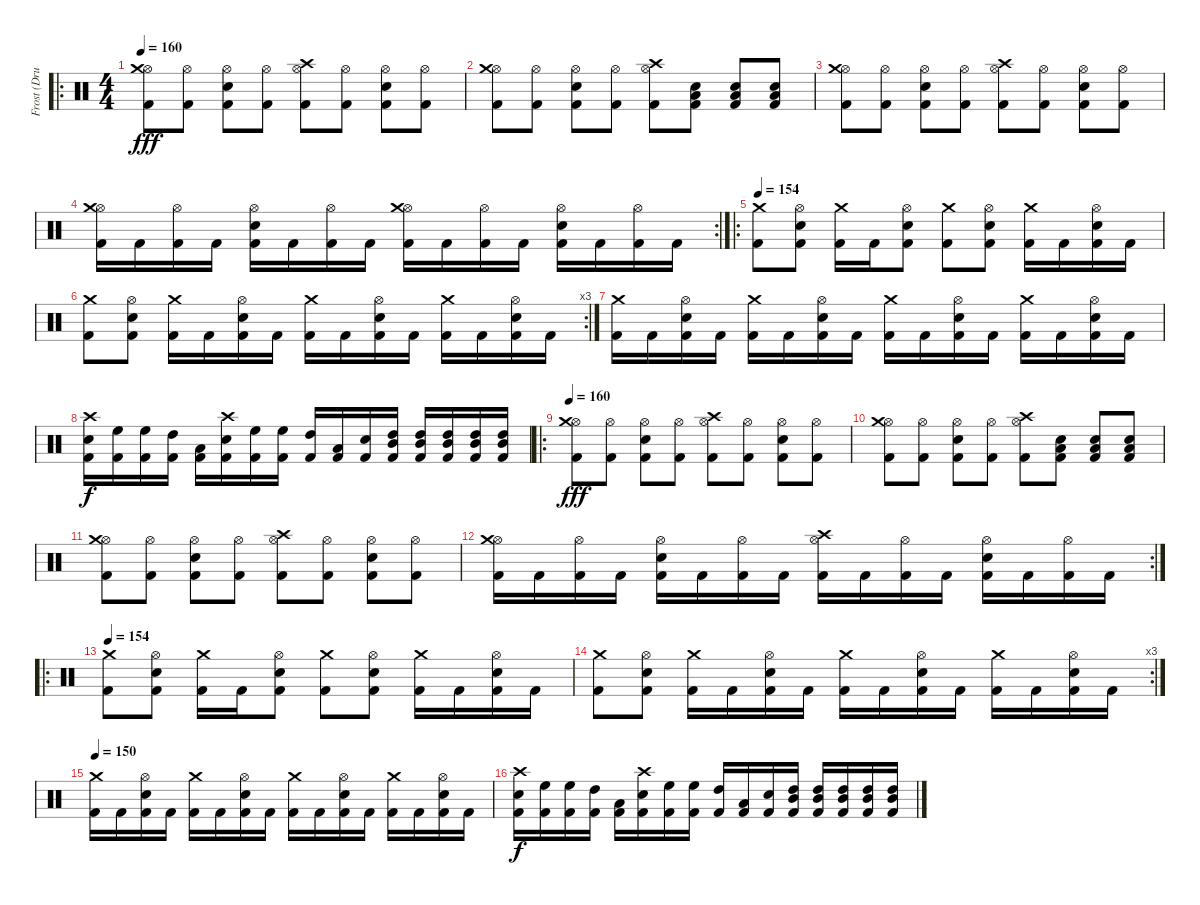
\track ("Frost (Drums)" "Frost (Dru") {instrument percussion}
\staff {score}
\articulation defaults
\ro
\ts (4 4)
\tempo 160
\clef neutral
\ks c
("Hi-Hat (open)" "Crash medium (hit)" "Kick (hit) 2").8{dy fff} ("Hi-Hat (open)" "Kick (hit) 2").8 ("Hi-Hat (open)" "Snare (hit) 2" "Kick (hit) 2").8 ("Hi-Hat (open)" "Kick (hit) 2").8 ("Hi-Hat (open)" "Crash high (hit)" "Kick (hit) 2").8 ("Hi-Hat (open)" "Kick (hit) 2").8 ("Hi-Hat (open)" "Snare (hit) 2" "Kick (hit) 2").8 ("Hi-Hat (open)" "Kick (hit) 2").8 |
("Hi-Hat (open)" "Crash medium (hit)" "Kick (hit) 2").8 ("Hi-Hat (open)" "Kick (hit) 2").8 ("Hi-Hat (open)" "Snare (hit) 2" "Kick (hit) 2").8 ("Hi-Hat (open)" "Kick (hit) 2").8 ("Hi-Hat (open)" "Crash high (hit)" "Kick (hit) 2").8 ("Low Tom (hit)" "Snare (hit) 2" "Kick (hit) 2").8 ("Low Tom (hit)" "Snare (hit) 2" "Kick (hit) 2").8 ("Low Tom (hit)" "Snare (hit) 2" "Kick (hit) 2").8 |
("Hi-Hat (open)" "Crash medium (hit)" "Kick (hit) 2").8 ("Hi-Hat (open)" "Kick (hit) 2").8 ("Hi-Hat (open)" "Snare (hit) 2" "Kick (hit) 2").8 ("Hi-Hat (open)" "Kick (hit) 2").8 ("Hi-Hat (open)" "Crash high (hit)" "Kick (hit) 2").8 ("Hi-Hat (open)" "Kick (hit) 2").8 ("Hi-Hat (open)" "Snare (hit) 2" "Kick (hit) 2").8 ("Hi-Hat (open)" "Kick (hit) 2").8 |
\rc 2
("Hi-Hat (open)" "Crash medium (hit)" "Kick (hit) 2").16 "Kick (hit) 2".16 ("Hi-Hat (open)" "Kick (hit) 2").16 "Kick (hit) 2".16 ("Hi-Hat (open)" "Snare (hit) 2" "Kick (hit) 2").16 "Kick (hit) 2".16 ("Hi-Hat (open)" "Kick (hit) 2").16 "Kick (hit) 2".16 ("Hi-Hat (open)" "Crash medium (hit)" "Kick (hit) 2").16 "Kick (hit) 2".16 ("Hi-Hat (open)" "Kick (hit) 2").16 "Kick (hit) 2".16 ("Hi-Hat (open)" "Snare (hit) 2" "Kick (hit) 2").16 "Kick (hit) 2".16 ("Hi-Hat (open)" "Kick (hit) 2").16 "Kick (hit) 2".16 |
\ro
\tempo 154
("Kick (hit) 2" "Crash medium (hit)").8 ("Kick (hit) 2" "Snare (hit) 2" "Hi-Hat (open)").8 ("Kick (hit) 2" "Crash medium (hit)").16 "Kick (hit) 2".16 ("Kick (hit) 2" "Snare (hit) 2" "Hi-Hat (open)").8 ("Kick (hit) 2" "Crash medium (hit)").8 ("Kick (hit) 2" "Snare (hit) 2" "Hi-Hat (open)").8 ("Kick (hit) 2" "Crash medium (hit)").16 "Kick (hit) 2".16 ("Kick (hit) 2" "Snare (hit) 2" "Hi-Hat (open)").16 "Kick (hit) 2".16 |
\rc 3
("Kick (hit) 2" "Crash medium (hit)").8 ("Kick (hit) 2" "Snare (hit) 2" "Hi-Hat (open)").8 ("Kick (hit) 2" "Crash medium (hit)").16 "Kick (hit) 2".16 ("Kick (hit) 2" "Snare (hit) 2" "Hi-Hat (open)").16 "Kick (hit) 2".16 ("Kick (hit) 2" "Crash medium (hit)").16 "Kick (hit) 2".16 ("Kick (hit) 2" "Snare (hit) 2" "Hi-Hat (open)").16 "Kick (hit) 2".16 ("Kick (hit) 2" "Crash medium (hit)").16 "Kick (hit) 2".16 ("Kick (hit) 2" "Snare (hit) 2" "Hi-Hat (open)").16 "Kick (hit) 2".16 |
("Kick (hit) 2" "Crash medium (hit)").16 "Kick (hit) 2".16 ("Kick (hit) 2" "Snare (hit) 2" "Hi-Hat (open)").16 "Kick (hit) 2".16 ("Kick (hit) 2" "Crash medium (hit)").16 "Kick (hit) 2".16 ("Kick (hit) 2" "Snare (hit) 2" "Hi-Hat (open)").16 "Kick (hit) 2".16 ("Kick (hit) 2" "Crash medium (hit)").16 "Kick (hit) 2".16 ("Kick (hit) 2" "Snare (hit) 2" "Hi-Hat (open)").16 "Kick (hit) 2".16 ("Kick (hit) 2" "Crash medium (hit)").16 "Kick (hit) 2".16 ("Kick (hit) 2" "Snare (hit) 2" "Hi-Hat (open)").16 "Kick (hit) 2".16 |
("Crash high (hit)" "Snare (hit) 2" "Kick (hit) 2").16{dy f} ("High Floor Tom (hit)" "Kick (hit) 2").16 ("High Floor Tom (hit)" "Kick (hit) 2").16 ("High Tom (hit)" "Kick (hit) 2").16 ("Low Tom (hit)" "Kick (hit) 2").16 ("Crash high (hit)" "Snare (hit) 2" "Kick (hit) 2").16 ("High Floor Tom (hit)" "Kick (hit) 2").16 ("High Floor Tom (hit)" "Kick (hit) 2").16 ("High Tom (hit)" "Kick (hit) 2").16 ("Low Tom (hit)" "Kick (hit) 2").16 ("Snare (hit) 2" "Kick (hit) 2").16 ("High Tom (hit)" "Mid Tom (hit)" "Kick (hit) 2").16 ("High Tom (hit)" "Mid Tom (hit)" "Kick (hit) 2").16 ("High Tom (hit)" "Mid Tom (hit)" "Kick (hit) 2").16 ("High Tom (hit)" "Mid Tom (hit)" "Kick (hit) 2").16 ("High Tom (hit)" "Mid Tom (hit)" "Kick (hit) 2").16 |
\ro
\tempo 160
("Hi-Hat (open)" "Crash medium (hit)" "Kick (hit) 2").8{dy fff} ("Hi-Hat (open)" "Kick (hit) 2").8 ("Hi-Hat (open)" "Snare (hit) 2" "Kick (hit) 2").8 ("Hi-Hat (open)" "Kick (hit) 2").8 ("Hi-Hat (open)" "Crash high (hit)" "Kick (hit) 2").8 ("Hi-Hat (open)" "Kick (hit) 2").8 ("Hi-Hat (open)" "Snare (hit) 2" "Kick (hit) 2").8 ("Hi-Hat (open)" "Kick (hit) 2").8 |
("Hi-Hat (open)" "Crash medium (hit)" "Kick (hit) 2").8 ("Hi-Hat (open)" "Kick (hit) 2").8 ("Hi-Hat (open)" "Snare (hit) 2" "Kick (hit) 2").8 ("Hi-Hat (open)" "Kick (hit) 2").8 ("Hi-Hat (open)" "Crash high (hit)" "Kick (hit) 2").8 ("Low Tom (hit)" "Snare (hit) 2" "Kick (hit) 2").8 ("Low Tom (hit)" "Snare (hit) 2" "Kick (hit) 2").8 ("Low Tom (hit)" "Snare (hit) 2" "Kick (hit) 2").8 |
("Hi-Hat (open)" "Crash medium (hit)" "Kick (hit) 2").8 ("Hi-Hat (open)" "Kick (hit) 2").8 ("Hi-Hat (open)" "Snare (hit) 2" "Kick (hit) 2").8 ("Hi-Hat (open)" "Kick (hit) 2").8 ("Hi-Hat (open)" "Crash high (hit)" "Kick (hit) 2").8 ("Hi-Hat (open)" "Kick (hit) 2").8 ("Hi-Hat (open)" "Snare (hit) 2" "Kick (hit) 2").8 ("Hi-Hat (open)" "Kick (hit) 2").8 |
\rc 2
("Hi-Hat (open)" "Crash medium (hit)" "Kick (hit) 2").16 "Kick (hit) 2".16 ("Hi-Hat (open)" "Kick (hit) 2").16 "Kick (hit) 2".16 ("Hi-Hat (open)" "Snare (hit) 2" "Kick (hit) 2").16 "Kick (hit) 2".16 ("Hi-Hat (open)" "Kick (hit) 2").16 "Kick (hit) 2".16 ("Hi-Hat (open)" "Crash high (hit)" "Kick (hit) 2").16 "Kick (hit) 2".16 ("Hi-Hat (open)" "Kick (hit) 2").16 "Kick (hit) 2".16 ("Hi-Hat (open)" "Snare (hit) 2" "Kick (hit) 2").16 "Kick (hit) 2".16 ("Hi-Hat (open)" "Kick (hit) 2").16 "Kick (hit) 2".16 |
\ro
\tempo 154
("Kick (hit) 2" "Crash medium (hit)").8 ("Kick (hit) 2" "Snare (hit) 2" "Hi-Hat (open)").8 ("Kick (hit) 2" "Crash medium (hit)").16 "Kick (hit) 2".16 ("Kick (hit) 2" "Snare (hit) 2" "Hi-Hat (open)").8 ("Kick (hit) 2" "Crash medium (hit)").8 ("Kick (hit) 2" "Snare (hit) 2" "Hi-Hat (open)").8 ("Kick (hit) 2" "Crash medium (hit)").16 "Kick (hit) 2".16 ("Kick (hit) 2" "Snare (hit) 2" "Hi-Hat (open)").16 "Kick (hit) 2".16 |
\rc 3
("Kick (hit) 2" "Crash medium (hit)").8 ("Kick (hit) 2" "Snare (hit) 2" "Hi-Hat (open)").8 ("Kick (hit) 2" "Crash medium (hit)").16 "Kick (hit) 2".16 ("Kick (hit) 2" "Snare (hit) 2" "Hi-Hat (open)").16 "Kick (hit) 2".16 ("Kick (hit) 2" "Crash medium (hit)").16 "Kick (hit) 2".16 ("Kick (hit) 2" "Snare (hit) 2" "Hi-Hat (open)").16 "Kick (hit) 2".16 ("Kick (hit) 2" "Crash medium (hit)").16 "Kick (hit) 2".16 ("Kick (hit) 2" "Snare (hit) 2" "Hi-Hat (open)").16 "Kick (hit) 2".16 |
\tempo 150
("Kick (hit) 2" "Crash medium (hit)").16 "Kick (hit) 2".16 ("Kick (hit) 2" "Snare (hit) 2" "Hi-Hat (open)").16 "Kick (hit) 2".16 ("Kick (hit) 2" "Crash medium (hit)").16 "Kick (hit) 2".16 ("Kick (hit) 2" "Snare (hit) 2" "Hi-Hat (open)").16 "Kick (hit) 2".16 ("Kick (hit) 2" "Crash medium (hit)").16 "Kick (hit) 2".16 ("Kick (hit) 2" "Snare (hit) 2" "Hi-Hat (open)").16 "Kick (hit) 2".16 ("Kick (hit) 2" "Crash medium (hit)").16 "Kick (hit) 2".16 ("Kick (hit) 2" "Snare (hit) 2" "Hi-Hat (open)").16 "Kick (hit) 2".16 |
("Crash high (hit)" "Snare (hit) 2" "Kick (hit) 2").16{dy f} ("High Floor Tom (hit)" "Kick (hit) 2").16 ("High Floor Tom (hit)" "Kick (hit) 2").16 ("High Tom (hit)" "Kick (hit) 2").16 ("Low Tom (hit)" "Kick (hit) 2").16 ("Crash high (hit)" "Snare (hit) 2" "Kick (hit) 2").16 ("High Floor Tom (hit)" "Kick (hit) 2").16 ("High Floor Tom (hit)" "Kick (hit) 2").16 ("High Tom (hit)" "Kick (hit) 2").16 ("Low Tom (hit)" "Kick (hit) 2").16 ("Snare (hit) 2" "Kick (hit) 2").16 ("High Tom (hit)" "Mid Tom (hit)" "Kick (hit) 2").16 ("High Tom (hit)" "Mid Tom (hit)" "Kick (hit) 2").16 ("High Tom (hit)" "Mid Tom (hit)" "Kick (hit) 2").16 ("High Tom (hit)" "Mid Tom (hit)" "Kick (hit) 2").16 ("High Tom (hit)" "Mid Tom (hit)" "Kick (hit) 2").16
